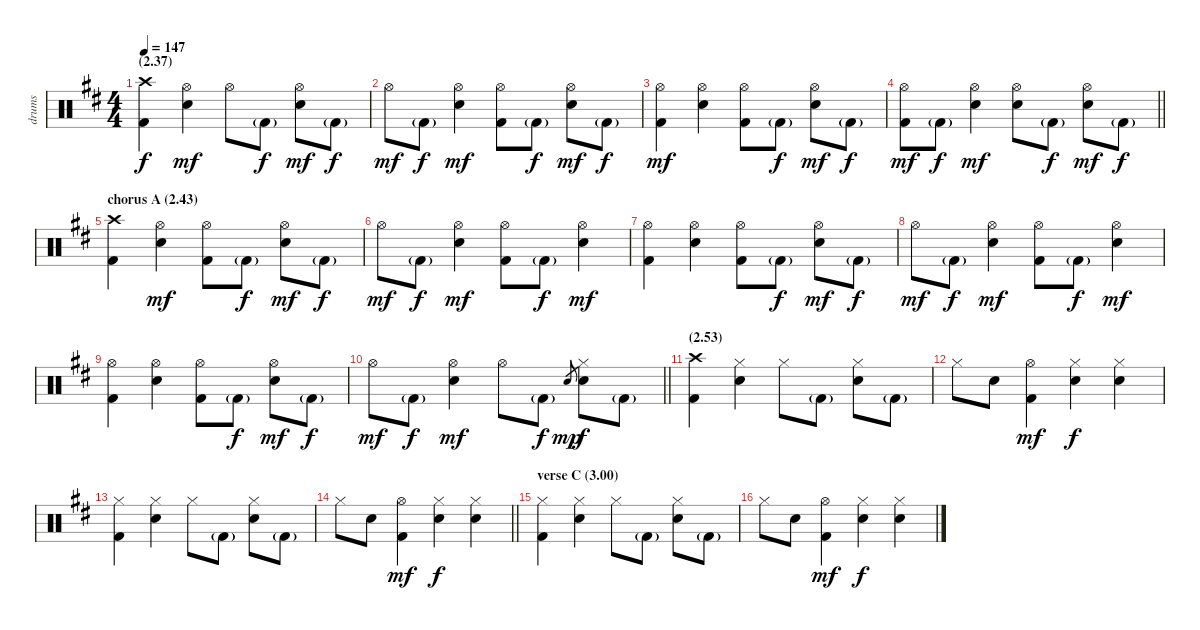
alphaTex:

\track ("drums" "drums") {instrument percussion}
\staff {score}
\articulation defaults
\ts (4 4)
\section ("" "(2.37)")
\tempo 147
\clef neutral
\ks d
("Crash high (hit)" "Kick (hit) 2").4{dy f} ("Hi-Hat (open)" "Electric Snare (hit)").4{dy mf} "Hi-Hat (open)".8 "Kick (hit) 2"{g}.8{dy f} ("Hi-Hat (open)" "Electric Snare (hit)").8{dy mf} "Kick (hit) 2"{g}.8{dy f} |
"Hi-Hat (open)".8{dy mf} "Kick (hit) 2"{g}.8{dy f} ("Hi-Hat (open)" "Electric Snare (hit)").4{dy mf} ("Hi-Hat (open)" "Kick (hit) 2").8 "Kick (hit) 2"{g}.8{dy f} ("Hi-Hat (open)" "Electric Snare (hit)").8{dy mf} "Kick (hit) 2"{g}.8{dy f} |
("Hi-Hat (open)" "Kick (hit) 2").4{dy mf} ("Hi-Hat (open)" "Electric Snare (hit)").4 ("Hi-Hat (open)" "Kick (hit) 2").8 "Kick (hit) 2"{g}.8{dy f} ("Hi-Hat (open)" "Electric Snare (hit)").8{dy mf} "Kick (hit) 2"{g}.8{dy f} |
\barLineRight lightlight
("Hi-Hat (open)" "Kick (hit) 2").8{dy mf} "Kick (hit) 2"{g}.8{dy f} ("Hi-Hat (open)" "Electric Snare (hit)").4{dy mf} ("Hi-Hat (open)" "Electric Snare (hit)").8 "Kick (hit) 2"{g}.8{dy f} ("Hi-Hat (open)" "Electric Snare (hit)").8{dy mf} "Kick (hit) 2"{g}.8{dy f} |
\section ("" "chorus A (2.43)")
("Crash high (hit)" "Kick (hit) 2").4 ("Hi-Hat (open)" "Electric Snare (hit)").4{dy mf} ("Hi-Hat (open)" "Kick (hit) 2").8 "Kick (hit) 2"{g}.8{dy f} ("Hi-Hat (open)" "Electric Snare (hit)").8{dy mf} "Kick (hit) 2"{g}.8{dy f} |
"Hi-Hat (open)".8{dy mf} "Kick (hit) 2"{g}.8{dy f} ("Hi-Hat (open)" "Electric Snare (hit)").4{dy mf} ("Hi-Hat (open)" "Kick (hit) 2").8 "Kick (hit) 2"{g}.8{dy f} ("Hi-Hat (open)" "Electric Snare (hit)").4{dy mf} |
("Hi-Hat (open)" "Kick (hit) 2").4 ("Hi-Hat (open)" "Electric Snare (hit)").4 ("Hi-Hat (open)" "Kick (hit) 2").8 "Kick (hit) 2"{g}.8{dy f} ("Hi-Hat (open)" "Electric Snare (hit)").8{dy mf} "Kick (hit) 2"{g}.8{dy f} |
"Hi-Hat (open)".8{dy mf} "Kick (hit) 2"{g}.8{dy f} ("Hi-Hat (open)" "Electric Snare (hit)").4{dy mf} ("Hi-Hat (open)" "Kick (hit) 2").8 "Kick (hit) 2"{g}.8{dy f} ("Hi-Hat (open)" "Electric Snare (hit)").4{dy mf} |
("Hi-Hat (open)" "Kick (hit) 2").4 ("Hi-Hat (open)" "Electric Snare (hit)").4 ("Hi-Hat (open)" "Kick (hit) 2").8 "Kick (hit) 2"{g}.8{dy f} ("Hi-Hat (open)" "Electric Snare (hit)").8{dy mf} "Kick (hit) 2"{g}.8{dy f} |
\barLineRight lightlight "Hi-Hat (open)".8{dy mf} "Kick (hit) 2"{g}.8{dy f}
("Hi-Hat (open)" "Electric Snare (hit)").4{dy mf} "Hi-Hat (open)".8 "Kick (hit) 2"{g}.8{dy f} "Electric Snare (hit)".8{gr dy mp} ("Hi-Hat (closed)" "Electric Snare (hit)").8{dy f} "Kick (hit) 2"{g}.8 |
\section ("" "(2.53)")
("Crash high (hit)" "Kick (hit) 2").4 ("Hi-Hat (closed)" "Electric Snare (hit)").4 "Hi-Hat (closed)".8 "Kick (hit) 2"{g}.8 ("Hi-Hat (closed)" "Electric Snare (hit)").8 "Kick (hit) 2"{g}.8 |
"Hi-Hat (closed)".8 "Electric Snare (hit)".8 ("Hi-Hat (open)" "Kick (hit) 2").4{dy mf} ("Hi-Hat (closed)" "Electric Snare (hit)").4{dy f} ("Hi-Hat (closed)" "Electric Snare (hit)").4 |
("Hi-Hat (closed)" "Kick (hit) 2").4 ("Hi-Hat (closed)" "Electric Snare (hit)").4 "Hi-Hat (closed)".8 "Kick (hit) 2"{g}.8 ("Hi-Hat (closed)" "Electric Snare (hit)").8 "Kick (hit) 2"{g}.8 |
\barLineRight lightlight "Hi-Hat (closed)".8 "Electric Snare (hit)".8
("Hi-Hat (open)" "Kick (hit) 2").4{dy mf} ("Hi-Hat (closed)" "Electric Snare (hit)").4{dy f} ("Hi-Hat (closed)" "Electric Snare (hit)").4 |
\section ("" "verse C (3.00)")
("Hi-Hat (closed)" "Kick (hit) 2").4 ("Hi-Hat (closed)" "Electric Snare (hit)").4 "Hi-Hat (closed)".8 "Kick (hit) 2"{g}.8 ("Hi-Hat (closed)" "Electric Snare (hit)").8 "Kick (hit) 2"{g}.8 |
"Hi-Hat (closed)".8 "Electric Snare (hit)".8 ("Hi-Hat (open)" "Kick (hit) 2").4{dy mf} ("Hi-Hat (closed)" "Electric Snare (hit)").4{dy f} ("Hi-Hat (closed)" "Electric Snare (hit)").4
